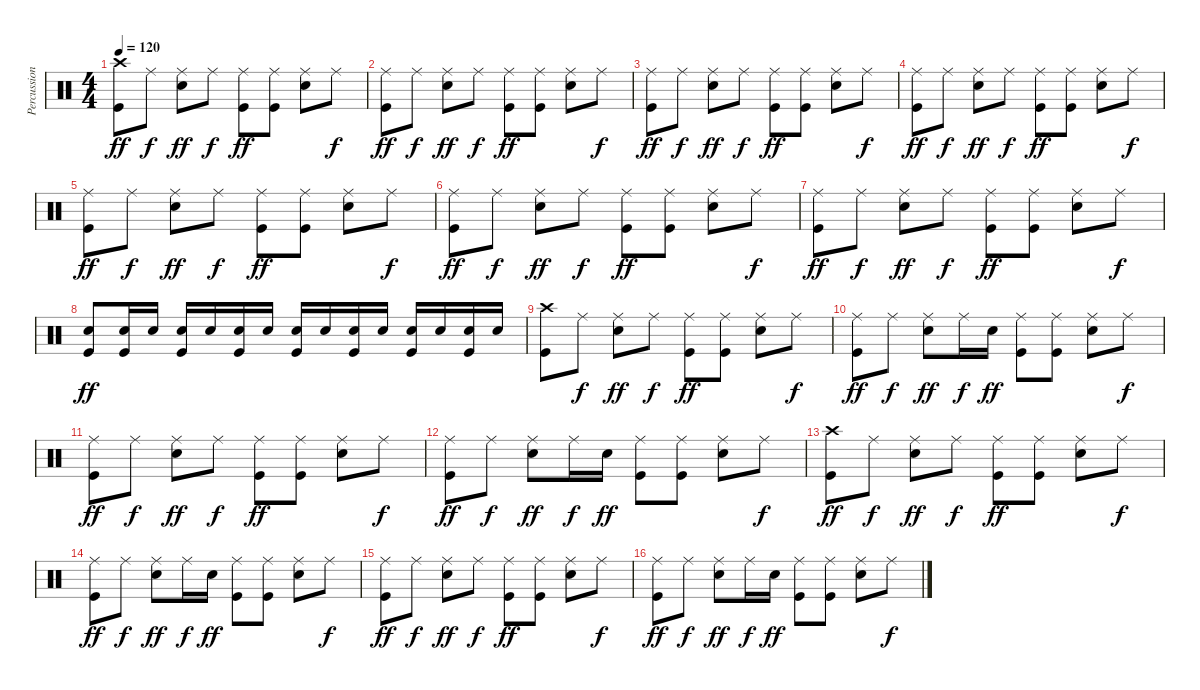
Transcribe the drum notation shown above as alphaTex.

\track ("Percussion" "Percussion") {instrument percussion}
\staff {score}
\articulation defaults
\ts (4 4)
\tempo 120
\clef neutral
\ks c
("Crash high (hit)" "Kick (hit)").8{dy ff} "Ride (middle)".8{dy f} ("Ride (middle)" "Snare (hit) 2").8{dy ff} "Ride (middle)".8{dy f} ("Ride (middle)" "Kick (hit)").8{dy ff} ("Ride (middle)" "Kick (hit)").8 ("Ride (middle)" "Snare (hit) 2").8 "Ride (middle)".8{dy f} |
("Ride (middle)" "Kick (hit)").8{dy ff} "Ride (middle)".8{dy f} ("Ride (middle)" "Snare (hit) 2").8{dy ff} "Ride (middle)".8{dy f} ("Ride (middle)" "Kick (hit)").8{dy ff} ("Ride (middle)" "Kick (hit)").8 ("Ride (middle)" "Snare (hit) 2").8 "Ride (middle)".8{dy f} |
("Ride (middle)" "Kick (hit)").8{dy ff} "Ride (middle)".8{dy f} ("Ride (middle)" "Snare (hit) 2").8{dy ff} "Ride (middle)".8{dy f} ("Ride (middle)" "Kick (hit)").8{dy ff} ("Ride (middle)" "Kick (hit)").8 ("Ride (middle)" "Snare (hit) 2").8 "Ride (middle)".8{dy f} |
("Ride (middle)" "Kick (hit)").8{dy ff} "Ride (middle)".8{dy f} ("Ride (middle)" "Snare (hit) 2").8{dy ff} "Ride (middle)".8{dy f} ("Ride (middle)" "Kick (hit)").8{dy ff} ("Ride (middle)" "Kick (hit)").8 ("Ride (middle)" "Snare (hit) 2").8 "Ride (middle)".8{dy f} |
("Ride (middle)" "Kick (hit)").8{dy ff} "Ride (middle)".8{dy f} ("Ride (middle)" "Snare (hit) 2").8{dy ff} "Ride (middle)".8{dy f} ("Ride (middle)" "Kick (hit)").8{dy ff} ("Ride (middle)" "Kick (hit)").8 ("Ride (middle)" "Snare (hit) 2").8 "Ride (middle)".8{dy f} |
("Ride (middle)" "Kick (hit)").8{dy ff} "Ride (middle)".8{dy f} ("Ride (middle)" "Snare (hit) 2").8{dy ff} "Ride (middle)".8{dy f} ("Ride (middle)" "Kick (hit)").8{dy ff} ("Ride (middle)" "Kick (hit)").8 ("Ride (middle)" "Snare (hit) 2").8 "Ride (middle)".8{dy f} |
("Ride (middle)" "Kick (hit)").8{dy ff} "Ride (middle)".8{dy f} ("Ride (middle)" "Snare (hit) 2").8{dy ff} "Ride (middle)".8{dy f} ("Ride (middle)" "Kick (hit)").8{dy ff} ("Ride (middle)" "Kick (hit)").8 ("Ride (middle)" "Snare (hit) 2").8 "Ride (middle)".8{dy f} |
("Snare (hit) 2" "Kick (hit)").8{dy ff} ("Snare (hit) 2" "Kick (hit)").16 "Snare (hit) 2".16 ("Snare (hit) 2" "Kick (hit)").16 "Snare (hit) 2".16 ("Snare (hit) 2" "Kick (hit)").16 "Snare (hit) 2".16 ("Snare (hit) 2" "Kick (hit)").16 "Snare (hit) 2".16 ("Snare (hit) 2" "Kick (hit)").16 "Snare (hit) 2".16 ("Snare (hit) 2" "Kick (hit)").16 "Snare (hit) 2".16 ("Snare (hit) 2" "Kick (hit)").16 "Snare (hit) 2".16 |
("Crash high (hit)" "Kick (hit)").8 "Ride (middle)".8{dy f} ("Ride (middle)" "Snare (hit) 2").8{dy ff} "Ride (middle)".8{dy f} ("Ride (middle)" "Kick (hit)").8{dy ff} ("Ride (middle)" "Kick (hit)").8 ("Ride (middle)" "Snare (hit) 2").8 "Ride (middle)".8{dy f} |
("Ride (middle)" "Kick (hit)").8{dy ff} "Ride (middle)".8{dy f} ("Ride (middle)" "Snare (hit) 2").8{dy ff} "Ride (middle)".16{dy f} "Snare (hit) 2".16{dy ff} ("Ride (middle)" "Kick (hit)").8 ("Ride (middle)" "Kick (hit)").8 ("Ride (middle)" "Snare (hit) 2").8 "Ride (middle)".8{dy f} |
("Ride (middle)" "Kick (hit)").8{dy ff} "Ride (middle)".8{dy f} ("Ride (middle)" "Snare (hit) 2").8{dy ff} "Ride (middle)".8{dy f} ("Ride (middle)" "Kick (hit)").8{dy ff} ("Ride (middle)" "Kick (hit)").8 ("Ride (middle)" "Snare (hit) 2").8 "Ride (middle)".8{dy f} |
("Ride (middle)" "Kick (hit)").8{dy ff} "Ride (middle)".8{dy f} ("Ride (middle)" "Snare (hit) 2").8{dy ff} "Ride (middle)".16{dy f} "Snare (hit) 2".16{dy ff} ("Ride (middle)" "Kick (hit)").8 ("Ride (middle)" "Kick (hit)").8 ("Ride (middle)" "Snare (hit) 2").8 "Ride (middle)".8{dy f} |
("Crash high (hit)" "Kick (hit)").8{dy ff} "Ride (middle)".8{dy f} ("Ride (middle)" "Snare (hit) 2").8{dy ff} "Ride (middle)".8{dy f} ("Ride (middle)" "Kick (hit)").8{dy ff} ("Ride (middle)" "Kick (hit)").8 ("Ride (middle)" "Snare (hit) 2").8 "Ride (middle)".8{dy f} |
("Ride (middle)" "Kick (hit)").8{dy ff} "Ride (middle)".8{dy f} ("Ride (middle)" "Snare (hit) 2").8{dy ff} "Ride (middle)".16{dy f} "Snare (hit) 2".16{dy ff} ("Ride (middle)" "Kick (hit)").8 ("Ride (middle)" "Kick (hit)").8 ("Ride (middle)" "Snare (hit) 2").8 "Ride (middle)".8{dy f} |
("Ride (middle)" "Kick (hit)").8{dy ff} "Ride (middle)".8{dy f} ("Ride (middle)" "Snare (hit) 2").8{dy ff} "Ride (middle)".8{dy f} ("Ride (middle)" "Kick (hit)").8{dy ff} ("Ride (middle)" "Kick (hit)").8 ("Ride (middle)" "Snare (hit) 2").8 "Ride (middle)".8{dy f} |
("Ride (middle)" "Kick (hit)").8{dy ff} "Ride (middle)".8{dy f} ("Ride (middle)" "Snare (hit) 2").8{dy ff} "Ride (middle)".16{dy f} "Snare (hit) 2".16{dy ff} ("Ride (middle)" "Kick (hit)").8 ("Ride (middle)" "Kick (hit)").8 ("Ride (middle)" "Snare (hit) 2").8 "Ride (middle)".8{dy f}
